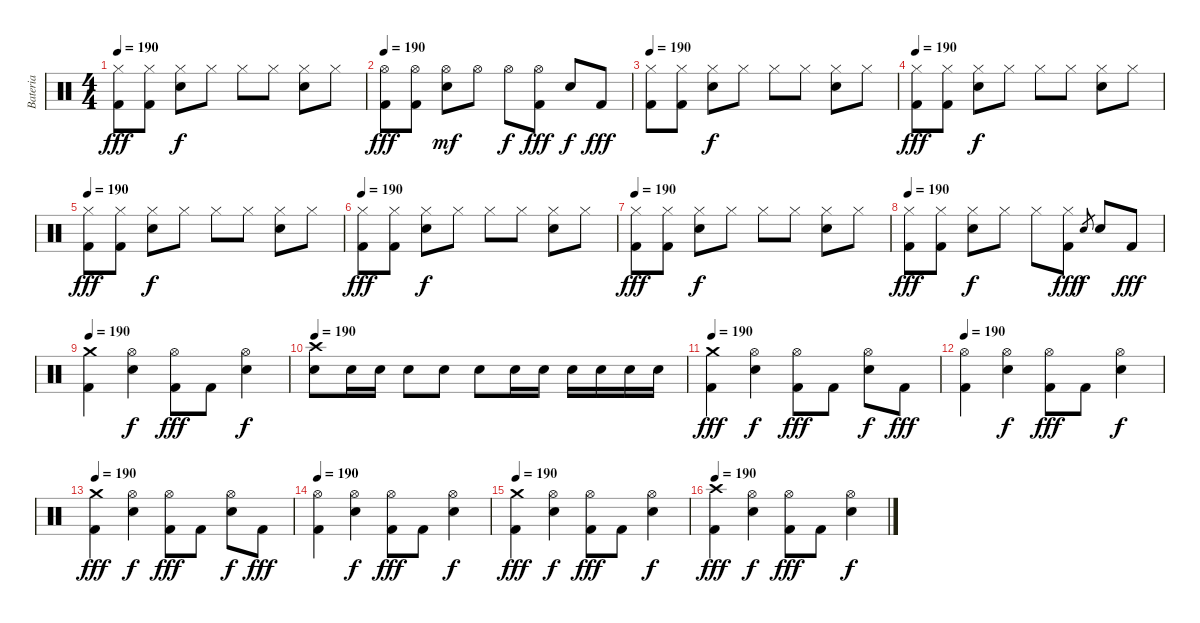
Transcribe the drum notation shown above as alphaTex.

\track ("Bateria" "Bateria") {instrument percussion}
\staff {score}
\articulation defaults
\ts (4 4)
\tempo 190
\clef neutral
\ks c
("Hi-Hat (closed)" "Kick (hit) 2").8{dy fff} ("Hi-Hat (closed)" "Kick (hit) 2").8 ("Hi-Hat (closed)" "Electric Snare (hit)").8{dy f} "Hi-Hat (closed)".8 "Hi-Hat (closed)".8 "Hi-Hat (closed)".8 ("Hi-Hat (closed)" "Electric Snare (hit)").8 "Hi-Hat (closed)".8 |
\tempo 190
("Hi-Hat (open)" "Kick (hit) 2").8{dy fff} ("Hi-Hat (open)" "Kick (hit) 2").8 ("Hi-Hat (open)" "Electric Snare (hit)").8{dy mf} "Hi-Hat (open)".8 "Hi-Hat (open)".8{dy f} ("Hi-Hat (open)" "Kick (hit) 2").8{dy fff} "Electric Snare (hit)".8{dy f} "Kick (hit) 2".8{dy fff} |
\tempo 190
("Hi-Hat (closed)" "Kick (hit) 2").8 ("Hi-Hat (closed)" "Kick (hit) 2").8 ("Hi-Hat (closed)" "Electric Snare (hit)").8{dy f} "Hi-Hat (closed)".8 "Hi-Hat (closed)".8 "Hi-Hat (closed)".8 ("Hi-Hat (closed)" "Electric Snare (hit)").8 "Hi-Hat (closed)".8 |
\tempo 190
("Hi-Hat (closed)" "Kick (hit) 2").8{dy fff} ("Hi-Hat (closed)" "Kick (hit) 2").8 ("Hi-Hat (closed)" "Electric Snare (hit)").8{dy f} "Hi-Hat (closed)".8 "Hi-Hat (closed)".8 "Hi-Hat (closed)".8 ("Hi-Hat (closed)" "Electric Snare (hit)").8 "Hi-Hat (closed)".8 |
\tempo 190
("Hi-Hat (closed)" "Kick (hit) 2").8{dy fff} ("Hi-Hat (closed)" "Kick (hit) 2").8 ("Hi-Hat (closed)" "Electric Snare (hit)").8{dy f} "Hi-Hat (closed)".8 "Hi-Hat (closed)".8 "Hi-Hat (closed)".8 ("Hi-Hat (closed)" "Electric Snare (hit)").8 "Hi-Hat (closed)".8 |
\tempo 190
("Hi-Hat (closed)" "Kick (hit) 2").8{dy fff} ("Hi-Hat (closed)" "Kick (hit) 2").8 ("Hi-Hat (closed)" "Electric Snare (hit)").8{dy f} "Hi-Hat (closed)".8 "Hi-Hat (closed)".8 "Hi-Hat (closed)".8 ("Hi-Hat (closed)" "Electric Snare (hit)").8 "Hi-Hat (closed)".8 |
\tempo 190
("Hi-Hat (closed)" "Kick (hit) 2").8{dy fff} ("Hi-Hat (closed)" "Kick (hit) 2").8 ("Hi-Hat (closed)" "Electric Snare (hit)").8{dy f} "Hi-Hat (closed)".8 "Hi-Hat (closed)".8 "Hi-Hat (closed)".8 ("Hi-Hat (closed)" "Electric Snare (hit)").8 "Hi-Hat (closed)".8 |
\tempo 190
("Hi-Hat (closed)" "Kick (hit) 2").8{dy fff} ("Hi-Hat (closed)" "Kick (hit) 2").8 ("Hi-Hat (closed)" "Electric Snare (hit)").8{dy f} "Hi-Hat (closed)".8 "Hi-Hat (closed)".8 ("Hi-Hat (closed)" "Kick (hit) 2").8{dy fff} "Electric Snare (hit)".8{gr dy f} "Electric Snare (hit)".8 "Kick (hit) 2".8{dy fff} |
\tempo 190
("Crash medium (hit)" "Kick (hit) 2").4 ("Hi-Hat (open)" "Electric Snare (hit)").4{dy f} ("Hi-Hat (open)" "Kick (hit) 2").8{dy fff} "Kick (hit) 2".8 ("Hi-Hat (open)" "Electric Snare (hit)").4{dy f} |
\tempo 190
("Crash high (hit)" "Electric Snare (hit)").8 "Electric Snare (hit)".16 "Electric Snare (hit)".16 "Electric Snare (hit)".8 "Electric Snare (hit)".8 "Electric Snare (hit)".8 "Electric Snare (hit)".16 "Electric Snare (hit)".16 "Electric Snare (hit)".16 "Electric Snare (hit)".16 "Electric Snare (hit)".16 "Electric Snare (hit)".16 |
\tempo 190
("Crash medium (hit)" "Kick (hit) 2").4{dy fff} ("Hi-Hat (open)" "Electric Snare (hit)").4{dy f} ("Hi-Hat (open)" "Kick (hit) 2").8{dy fff} "Kick (hit) 2".8 ("Hi-Hat (open)" "Electric Snare (hit)").8{dy f} "Kick (hit) 2".8{dy fff} |
\tempo 190
("Hi-Hat (open)" "Kick (hit) 2").4 ("Hi-Hat (open)" "Electric Snare (hit)").4{dy f} ("Hi-Hat (open)" "Kick (hit) 2").8{dy fff} "Kick (hit) 2".8 ("Hi-Hat (open)" "Electric Snare (hit)").4{dy f} |
\tempo 190
("Crash medium (hit)" "Kick (hit) 2").4{dy fff} ("Hi-Hat (open)" "Electric Snare (hit)").4{dy f} ("Hi-Hat (open)" "Kick (hit) 2").8{dy fff} "Kick (hit) 2".8 ("Hi-Hat (open)" "Electric Snare (hit)").8{dy f} "Kick (hit) 2".8{dy fff} |
\tempo 190
("Hi-Hat (open)" "Kick (hit) 2").4 ("Hi-Hat (open)" "Electric Snare (hit)").4{dy f} ("Hi-Hat (open)" "Kick (hit) 2").8{dy fff} "Kick (hit) 2".8 ("Hi-Hat (open)" "Electric Snare (hit)").4{dy f} |
\tempo 190
("Crash medium (hit)" "Kick (hit) 2").4{dy fff} ("Hi-Hat (open)" "Electric Snare (hit)").4{dy f} ("Hi-Hat (open)" "Kick (hit) 2").8{dy fff} "Kick (hit) 2".8 ("Hi-Hat (open)" "Electric Snare (hit)").4{dy f} |
\tempo 190
("Crash high (hit)" "Kick (hit) 2").4{dy fff} ("Hi-Hat (open)" "Electric Snare (hit)").4{dy f} ("Hi-Hat (open)" "Kick (hit) 2").8{dy fff} "Kick (hit) 2".8 ("Hi-Hat (open)" "Electric Snare (hit)").4{dy f}
